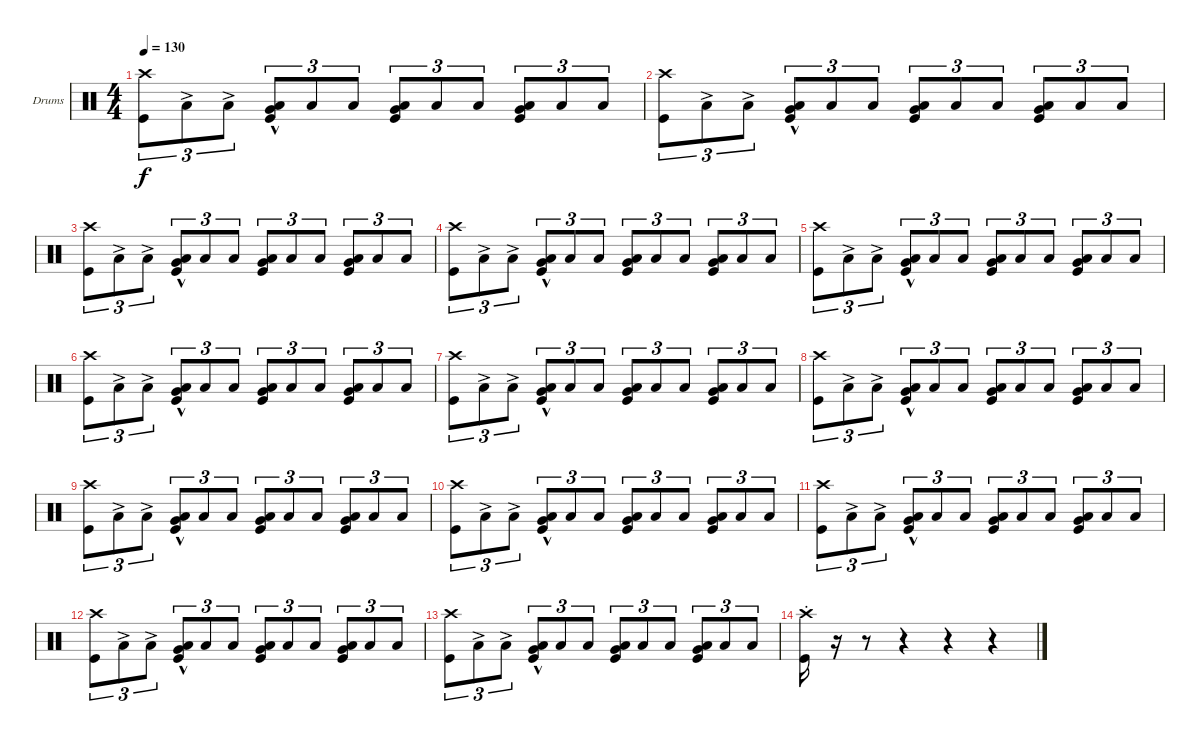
\bracketExtendMode groupsimilarinstruments
\firstSystemTrackNameOrientation horizontal
\otherSystemsTrackNameOrientation horizontal
\track ("Drumkit" "Drums") {instrument percussion}
\staff {score}
\articulation defaults
\ts (4 4)
\tempo 130
\clef neutral
\ks c
("Crash high (hit)" "Kick (hit)").8{tu (3 2) dy f} "Low Tom (hit)"{ac}.8{tu (3 2)} "Low Tom (hit)"{ac}.8{tu (3 2)} ("Low Tom (hit)"{hac} "Kick (hit)" "Very Low Tom (hit)").8{tu (3 2)} "Low Tom (hit)".8{tu (3 2)} "Low Tom (hit)".8{tu (3 2)} ("Kick (hit)" "Very Low Tom (hit)" "Low Tom (hit)").8{tu (3 2)} "Low Tom (hit)".8{tu (3 2)} "Low Tom (hit)".8{tu (3 2)} ("Kick (hit)" "Very Low Tom (hit)" "Low Tom (hit)").8{tu (3 2)} "Low Tom (hit)".8{tu (3 2)} "Low Tom (hit)".8{tu (3 2)} |
("Crash high (hit)" "Kick (hit)").8{tu (3 2)} "Low Tom (hit)"{ac}.8{tu (3 2)} "Low Tom (hit)"{ac}.8{tu (3 2)} ("Low Tom (hit)"{hac} "Kick (hit)" "Very Low Tom (hit)").8{tu (3 2)} "Low Tom (hit)".8{tu (3 2)} "Low Tom (hit)".8{tu (3 2)} ("Kick (hit)" "Very Low Tom (hit)" "Low Tom (hit)").8{tu (3 2)} "Low Tom (hit)".8{tu (3 2)} "Low Tom (hit)".8{tu (3 2)} ("Kick (hit)" "Very Low Tom (hit)" "Low Tom (hit)").8{tu (3 2)} "Low Tom (hit)".8{tu (3 2)} "Low Tom (hit)".8{tu (3 2)} |
("Crash high (hit)" "Kick (hit)").8{tu (3 2)} "Low Tom (hit)"{ac}.8{tu (3 2)} "Low Tom (hit)"{ac}.8{tu (3 2)} ("Low Tom (hit)"{hac} "Kick (hit)" "Very Low Tom (hit)").8{tu (3 2)} "Low Tom (hit)".8{tu (3 2)} "Low Tom (hit)".8{tu (3 2)} ("Kick (hit)" "Very Low Tom (hit)" "Low Tom (hit)").8{tu (3 2)} "Low Tom (hit)".8{tu (3 2)} "Low Tom (hit)".8{tu (3 2)} ("Kick (hit)" "Very Low Tom (hit)" "Low Tom (hit)").8{tu (3 2)} "Low Tom (hit)".8{tu (3 2)} "Low Tom (hit)".8{tu (3 2)} |
("Crash high (hit)" "Kick (hit)").8{tu (3 2)} "Low Tom (hit)"{ac}.8{tu (3 2)} "Low Tom (hit)"{ac}.8{tu (3 2)} ("Low Tom (hit)"{hac} "Kick (hit)" "Very Low Tom (hit)").8{tu (3 2)} "Low Tom (hit)".8{tu (3 2)} "Low Tom (hit)".8{tu (3 2)} ("Kick (hit)" "Very Low Tom (hit)" "Low Tom (hit)").8{tu (3 2)} "Low Tom (hit)".8{tu (3 2)} "Low Tom (hit)".8{tu (3 2)} ("Kick (hit)" "Very Low Tom (hit)" "Low Tom (hit)").8{tu (3 2)} "Low Tom (hit)".8{tu (3 2)} "Low Tom (hit)".8{tu (3 2)} |
("Crash high (hit)" "Kick (hit)").8{tu (3 2)} "Low Tom (hit)"{ac}.8{tu (3 2)} "Low Tom (hit)"{ac}.8{tu (3 2)} ("Low Tom (hit)"{hac} "Kick (hit)" "Very Low Tom (hit)").8{tu (3 2)} "Low Tom (hit)".8{tu (3 2)} "Low Tom (hit)".8{tu (3 2)} ("Kick (hit)" "Very Low Tom (hit)" "Low Tom (hit)").8{tu (3 2)} "Low Tom (hit)".8{tu (3 2)} "Low Tom (hit)".8{tu (3 2)} ("Kick (hit)" "Very Low Tom (hit)" "Low Tom (hit)").8{tu (3 2)} "Low Tom (hit)".8{tu (3 2)} "Low Tom (hit)".8{tu (3 2)} |
("Crash high (hit)" "Kick (hit)").8{tu (3 2)} "Low Tom (hit)"{ac}.8{tu (3 2)} "Low Tom (hit)"{ac}.8{tu (3 2)} ("Low Tom (hit)"{hac} "Kick (hit)" "Very Low Tom (hit)").8{tu (3 2)} "Low Tom (hit)".8{tu (3 2)} "Low Tom (hit)".8{tu (3 2)} ("Kick (hit)" "Very Low Tom (hit)" "Low Tom (hit)").8{tu (3 2)} "Low Tom (hit)".8{tu (3 2)} "Low Tom (hit)".8{tu (3 2)} ("Kick (hit)" "Very Low Tom (hit)" "Low Tom (hit)").8{tu (3 2)} "Low Tom (hit)".8{tu (3 2)} "Low Tom (hit)".8{tu (3 2)} |
("Crash high (hit)" "Kick (hit)").8{tu (3 2)} "Low Tom (hit)"{ac}.8{tu (3 2)} "Low Tom (hit)"{ac}.8{tu (3 2)} ("Low Tom (hit)"{hac} "Kick (hit)" "Very Low Tom (hit)").8{tu (3 2)} "Low Tom (hit)".8{tu (3 2)} "Low Tom (hit)".8{tu (3 2)} ("Kick (hit)" "Very Low Tom (hit)" "Low Tom (hit)").8{tu (3 2)} "Low Tom (hit)".8{tu (3 2)} "Low Tom (hit)".8{tu (3 2)} ("Kick (hit)" "Very Low Tom (hit)" "Low Tom (hit)").8{tu (3 2)} "Low Tom (hit)".8{tu (3 2)} "Low Tom (hit)".8{tu (3 2)} |
("Crash high (hit)" "Kick (hit)").8{tu (3 2)} "Low Tom (hit)"{ac}.8{tu (3 2)} "Low Tom (hit)"{ac}.8{tu (3 2)} ("Low Tom (hit)"{hac} "Kick (hit)" "Very Low Tom (hit)").8{tu (3 2)} "Low Tom (hit)".8{tu (3 2)} "Low Tom (hit)".8{tu (3 2)} ("Kick (hit)" "Very Low Tom (hit)" "Low Tom (hit)").8{tu (3 2)} "Low Tom (hit)".8{tu (3 2)} "Low Tom (hit)".8{tu (3 2)} ("Kick (hit)" "Very Low Tom (hit)" "Low Tom (hit)").8{tu (3 2)} "Low Tom (hit)".8{tu (3 2)} "Low Tom (hit)".8{tu (3 2)} |
("Crash high (hit)" "Kick (hit)").8{tu (3 2)} "Low Tom (hit)"{ac}.8{tu (3 2)} "Low Tom (hit)"{ac}.8{tu (3 2)} ("Low Tom (hit)"{hac} "Kick (hit)" "Very Low Tom (hit)").8{tu (3 2)} "Low Tom (hit)".8{tu (3 2)} "Low Tom (hit)".8{tu (3 2)} ("Kick (hit)" "Very Low Tom (hit)" "Low Tom (hit)").8{tu (3 2)} "Low Tom (hit)".8{tu (3 2)} "Low Tom (hit)".8{tu (3 2)} ("Kick (hit)" "Very Low Tom (hit)" "Low Tom (hit)").8{tu (3 2)} "Low Tom (hit)".8{tu (3 2)} "Low Tom (hit)".8{tu (3 2)} |
("Crash high (hit)" "Kick (hit)").8{tu (3 2)} "Low Tom (hit)"{ac}.8{tu (3 2)} "Low Tom (hit)"{ac}.8{tu (3 2)} ("Low Tom (hit)"{hac} "Kick (hit)" "Very Low Tom (hit)").8{tu (3 2)} "Low Tom (hit)".8{tu (3 2)} "Low Tom (hit)".8{tu (3 2)} ("Kick (hit)" "Very Low Tom (hit)" "Low Tom (hit)").8{tu (3 2)} "Low Tom (hit)".8{tu (3 2)} "Low Tom (hit)".8{tu (3 2)} ("Kick (hit)" "Very Low Tom (hit)" "Low Tom (hit)").8{tu (3 2)} "Low Tom (hit)".8{tu (3 2)} "Low Tom (hit)".8{tu (3 2)} |
("Crash high (hit)" "Kick (hit)").8{tu (3 2)} "Low Tom (hit)"{ac}.8{tu (3 2)} "Low Tom (hit)"{ac}.8{tu (3 2)} ("Low Tom (hit)"{hac} "Kick (hit)" "Very Low Tom (hit)").8{tu (3 2)} "Low Tom (hit)".8{tu (3 2)} "Low Tom (hit)".8{tu (3 2)} ("Kick (hit)" "Very Low Tom (hit)" "Low Tom (hit)").8{tu (3 2)} "Low Tom (hit)".8{tu (3 2)} "Low Tom (hit)".8{tu (3 2)} ("Kick (hit)" "Very Low Tom (hit)" "Low Tom (hit)").8{tu (3 2)} "Low Tom (hit)".8{tu (3 2)} "Low Tom (hit)".8{tu (3 2)} |
("Crash high (hit)" "Kick (hit)").8{tu (3 2)} "Low Tom (hit)"{ac}.8{tu (3 2)} "Low Tom (hit)"{ac}.8{tu (3 2)} ("Low Tom (hit)"{hac} "Kick (hit)" "Very Low Tom (hit)").8{tu (3 2)} "Low Tom (hit)".8{tu (3 2)} "Low Tom (hit)".8{tu (3 2)} ("Kick (hit)" "Very Low Tom (hit)" "Low Tom (hit)").8{tu (3 2)} "Low Tom (hit)".8{tu (3 2)} "Low Tom (hit)".8{tu (3 2)} ("Kick (hit)" "Very Low Tom (hit)" "Low Tom (hit)").8{tu (3 2)} "Low Tom (hit)".8{tu (3 2)} "Low Tom (hit)".8{tu (3 2)} |
("Crash high (hit)" "Kick (hit)").8{tu (3 2)} "Low Tom (hit)"{ac}.8{tu (3 2)} "Low Tom (hit)"{ac}.8{tu (3 2)} ("Low Tom (hit)"{hac} "Kick (hit)" "Very Low Tom (hit)").8{tu (3 2)} "Low Tom (hit)".8{tu (3 2)} "Low Tom (hit)".8{tu (3 2)} ("Kick (hit)" "Very Low Tom (hit)" "Low Tom (hit)").8{tu (3 2)} "Low Tom (hit)".8{tu (3 2)} "Low Tom (hit)".8{tu (3 2)} ("Kick (hit)" "Very Low Tom (hit)" "Low Tom (hit)").8{tu (3 2)} "Low Tom (hit)".8{tu (3 2)} "Low Tom (hit)".8{tu (3 2)} |
("Crash high (hit)"{st} "Kick (hit)").16 r.16 r.8 r.4 r.4 r.4
